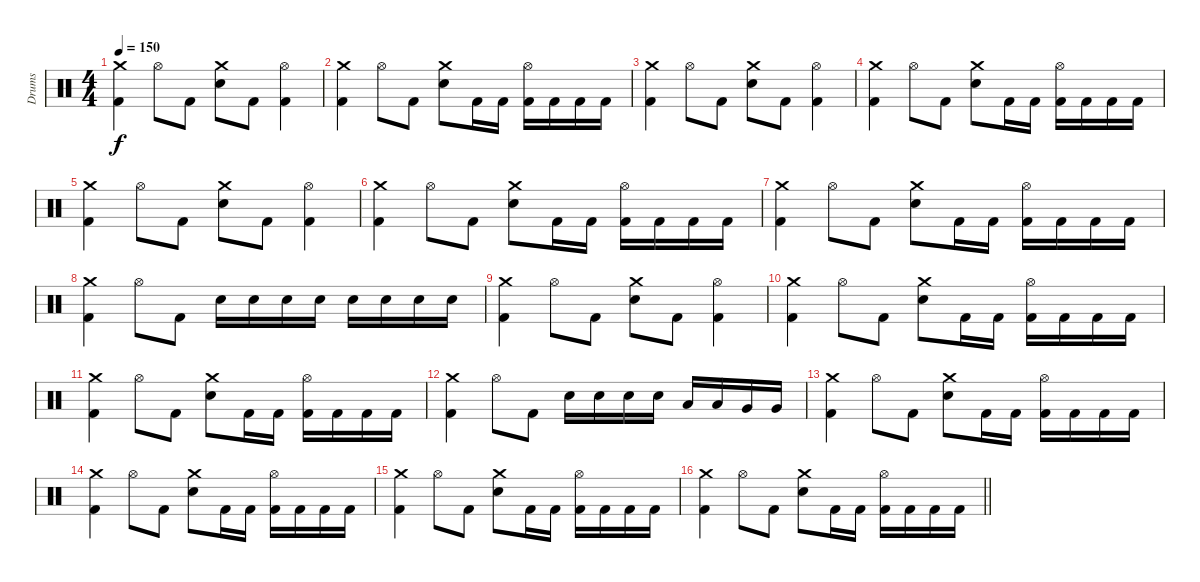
\track ("Drums" "Drums") {instrument percussion}
\staff {score}
\articulation defaults
\ts (4 4)
\tempo 150
\clef neutral
\ks c
("Crash medium (hit)" "Kick (hit) 2").4{dy f} "Hi-Hat (open)".8 "Kick (hit) 2".8 ("Crash medium (hit)" "Electric Snare (hit)").8 "Kick (hit) 2".8 ("Hi-Hat (open)" "Kick (hit) 2").4 |
("Crash medium (hit)" "Kick (hit) 2").4 "Hi-Hat (open)".8 "Kick (hit) 2".8 ("Crash medium (hit)" "Electric Snare (hit)").8 "Kick (hit) 2".16 "Kick (hit) 2".16 ("Hi-Hat (open)" "Kick (hit) 2").16 "Kick (hit) 2".16 "Kick (hit) 2".16 "Kick (hit) 2".16 |
("Crash medium (hit)" "Kick (hit) 2").4 "Hi-Hat (open)".8 "Kick (hit) 2".8 ("Crash medium (hit)" "Electric Snare (hit)").8 "Kick (hit) 2".8 ("Hi-Hat (open)" "Kick (hit) 2").4 |
("Crash medium (hit)" "Kick (hit) 2").4 "Hi-Hat (open)".8 "Kick (hit) 2".8 ("Crash medium (hit)" "Electric Snare (hit)").8 "Kick (hit) 2".16 "Kick (hit) 2".16 ("Hi-Hat (open)" "Kick (hit) 2").16 "Kick (hit) 2".16 "Kick (hit) 2".16 "Kick (hit) 2".16 |
("Crash medium (hit)" "Kick (hit) 2").4 "Hi-Hat (open)".8 "Kick (hit) 2".8 ("Crash medium (hit)" "Electric Snare (hit)").8 "Kick (hit) 2".8 ("Hi-Hat (open)" "Kick (hit) 2").4 |
("Crash medium (hit)" "Kick (hit) 2").4 "Hi-Hat (open)".8 "Kick (hit) 2".8 ("Crash medium (hit)" "Electric Snare (hit)").8 "Kick (hit) 2".16 "Kick (hit) 2".16 ("Hi-Hat (open)" "Kick (hit) 2").16 "Kick (hit) 2".16 "Kick (hit) 2".16 "Kick (hit) 2".16 |
("Crash medium (hit)" "Kick (hit) 2").4 "Hi-Hat (open)".8 "Kick (hit) 2".8 ("Crash medium (hit)" "Electric Snare (hit)").8 "Kick (hit) 2".16 "Kick (hit) 2".16 ("Hi-Hat (open)" "Kick (hit) 2").16 "Kick (hit) 2".16 "Kick (hit) 2".16 "Kick (hit) 2".16 |
("Crash medium (hit)" "Kick (hit) 2").4 "Hi-Hat (open)".8 "Kick (hit) 2".8 "Electric Snare (hit)".16 "Electric Snare (hit)".16 "Electric Snare (hit)".16 "Electric Snare (hit)".16 "Electric Snare (hit)".16 "Electric Snare (hit)".16 "Electric Snare (hit)".16 "Electric Snare (hit)".16 |
("Crash medium (hit)" "Kick (hit) 2").4{volume 7} "Hi-Hat (open)".8 "Kick (hit) 2".8 ("Crash medium (hit)" "Electric Snare (hit)").8 "Kick (hit) 2".8 ("Hi-Hat (open)" "Kick (hit) 2").4 |
("Crash medium (hit)" "Kick (hit) 2").4 "Hi-Hat (open)".8 "Kick (hit) 2".8 ("Crash medium (hit)" "Electric Snare (hit)").8 "Kick (hit) 2".16 "Kick (hit) 2".16 ("Hi-Hat (open)" "Kick (hit) 2").16 "Kick (hit) 2".16 "Kick (hit) 2".16 "Kick (hit) 2".16 |
("Crash medium (hit)" "Kick (hit) 2").4 "Hi-Hat (open)".8 "Kick (hit) 2".8 ("Crash medium (hit)" "Electric Snare (hit)").8 "Kick (hit) 2".16 "Kick (hit) 2".16 ("Hi-Hat (open)" "Kick (hit) 2").16 "Kick (hit) 2".16 "Kick (hit) 2".16 "Kick (hit) 2".16 |
("Crash medium (hit)" "Kick (hit) 2").4 "Hi-Hat (open)".8 "Kick (hit) 2".8 "Electric Snare (hit)".16 "Electric Snare (hit)".16 "Electric Snare (hit)".16 "Electric Snare (hit)".16 "Low Tom (hit)".16 "Low Tom (hit)".16 "Very Low Tom (hit)".16 "Very Low Tom (hit)".16 |
("Crash medium (hit)" "Kick (hit) 2").4 "Hi-Hat (open)".8{volume 0} "Kick (hit) 2".8 ("Crash medium (hit)" "Electric Snare (hit)").8 "Kick (hit) 2".16 "Kick (hit) 2".16 ("Hi-Hat (open)" "Kick (hit) 2").16 "Kick (hit) 2".16 "Kick (hit) 2".16 "Kick (hit) 2".16 |
("Crash medium (hit)" "Kick (hit) 2").4 "Hi-Hat (open)".8 "Kick (hit) 2".8 ("Crash medium (hit)" "Electric Snare (hit)").8 "Kick (hit) 2".16 "Kick (hit) 2".16 ("Hi-Hat (open)" "Kick (hit) 2").16 "Kick (hit) 2".16 "Kick (hit) 2".16 "Kick (hit) 2".16 |
("Crash medium (hit)" "Kick (hit) 2").4 "Hi-Hat (open)".8 "Kick (hit) 2".8 ("Crash medium (hit)" "Electric Snare (hit)").8 "Kick (hit) 2".16 "Kick (hit) 2".16 ("Hi-Hat (open)" "Kick (hit) 2").16 "Kick (hit) 2".16 "Kick (hit) 2".16 "Kick (hit) 2".16 |
\barLineRight lightlight
("Crash medium (hit)" "Kick (hit) 2").4 "Hi-Hat (open)".8 "Kick (hit) 2".8 ("Crash medium (hit)" "Electric Snare (hit)").8 "Kick (hit) 2".16 "Kick (hit) 2".16 ("Hi-Hat (open)" "Kick (hit) 2").16 "Kick (hit) 2".16 "Kick (hit) 2".16 "Kick (hit) 2".16
